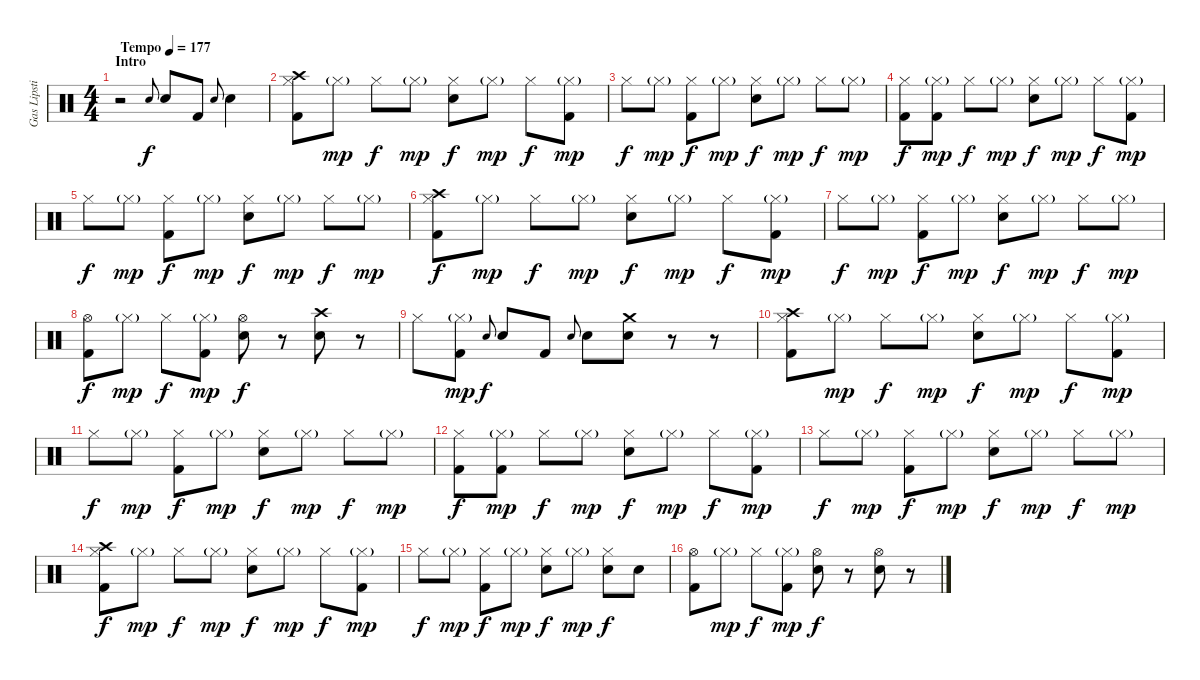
\track ("Gas Lipstick (Drums)" "Gas Lipsti") {instrument percussion}
\staff {score}
\articulation defaults
\ts (4 4)
\section ("" "Intro")
\tempo (177 "Tempo")
\clef neutral
\ks c
r.2{dy f} "Snare (hit) 2".8{gr onbeat} "Snare (hit) 2".8 "Kick (hit) 2".8 "Snare (hit) 2".8{gr onbeat} "Snare (hit) 2".4 |
("Crash high (hit)" "Hi-Hat (closed)" "Kick (hit) 2").8 "Hi-Hat (closed)"{g}.8{dy mp} "Hi-Hat (closed)".8{dy f} "Hi-Hat (closed)"{g}.8{dy mp} ("Hi-Hat (closed)" "Snare (hit) 2").8{dy f} "Hi-Hat (closed)"{g}.8{dy mp} "Hi-Hat (closed)".8{dy f} ("Hi-Hat (closed)"{g} "Kick (hit) 2").8{dy mp} |
"Hi-Hat (closed)".8{dy f} "Hi-Hat (closed)"{g}.8{dy mp} ("Hi-Hat (closed)" "Kick (hit) 2").8{dy f} "Hi-Hat (closed)"{g}.8{dy mp} ("Hi-Hat (closed)" "Snare (hit) 2").8{dy f} "Hi-Hat (closed)"{g}.8{dy mp} "Hi-Hat (closed)".8{dy f} "Hi-Hat (closed)"{g}.8{dy mp} |
("Hi-Hat (closed)" "Kick (hit) 2").8{dy f} ("Hi-Hat (closed)"{g} "Kick (hit) 2").8{dy mp} "Hi-Hat (closed)".8{dy f} "Hi-Hat (closed)"{g}.8{dy mp} ("Hi-Hat (closed)" "Snare (hit) 2").8{dy f} "Hi-Hat (closed)"{g}.8{dy mp} "Hi-Hat (closed)".8{dy f} ("Hi-Hat (closed)"{g} "Kick (hit) 2").8{dy mp} |
"Hi-Hat (closed)".8{dy f} "Hi-Hat (closed)"{g}.8{dy mp} ("Hi-Hat (closed)" "Kick (hit) 2").8{dy f} "Hi-Hat (closed)"{g}.8{dy mp} ("Hi-Hat (closed)" "Snare (hit) 2").8{dy f} "Hi-Hat (closed)"{g}.8{dy mp} "Hi-Hat (closed)".8{dy f} "Hi-Hat (closed)"{g}.8{dy mp} |
("Crash high (hit)" "Hi-Hat (closed)" "Kick (hit) 2").8{dy f} "Hi-Hat (closed)"{g}.8{dy mp} "Hi-Hat (closed)".8{dy f} "Hi-Hat (closed)"{g}.8{dy mp} ("Hi-Hat (closed)" "Snare (hit) 2").8{dy f} "Hi-Hat (closed)"{g}.8{dy mp} "Hi-Hat (closed)".8{dy f} ("Hi-Hat (closed)"{g} "Kick (hit) 2").8{dy mp} |
"Hi-Hat (closed)".8{dy f} "Hi-Hat (closed)"{g}.8{dy mp} ("Hi-Hat (closed)" "Kick (hit) 2").8{dy f} "Hi-Hat (closed)"{g}.8{dy mp} ("Hi-Hat (closed)" "Snare (hit) 2").8{dy f} "Hi-Hat (closed)"{g}.8{dy mp} "Hi-Hat (closed)".8{dy f} "Hi-Hat (closed)"{g}.8{dy mp} |
("Hi-Hat (open)" "Kick (hit) 2").8{dy f} "Hi-Hat (closed)"{g}.8{dy mp} "Hi-Hat (closed)".8{dy f} ("Hi-Hat (closed)"{g} "Kick (hit) 2").8{dy mp} ("Hi-Hat (open)" "Snare (hit) 2").8{dy f} r.8 ("Crash high (hit)" "Snare (hit) 2").8 r.8 |
"Hi-Hat (closed)".8 ("Hi-Hat (closed)"{g} "Kick (hit) 2").8{dy mp} "Snare (hit) 2".8{gr onbeat dy f} "Snare (hit) 2".8 "Kick (hit) 2".8 "Snare (hit) 2".8{gr onbeat} "Snare (hit) 2".8 ("Crash medium (hit)" "Snare (hit) 2").8 r.8 r.8 |
("Crash high (hit)" "Hi-Hat (closed)" "Kick (hit) 2").8 "Hi-Hat (closed)"{g}.8{dy mp} "Hi-Hat (closed)".8{dy f} "Hi-Hat (closed)"{g}.8{dy mp} ("Hi-Hat (closed)" "Snare (hit) 2").8{dy f} "Hi-Hat (closed)"{g}.8{dy mp} "Hi-Hat (closed)".8{dy f} ("Hi-Hat (closed)"{g} "Kick (hit) 2").8{dy mp} |
"Hi-Hat (closed)".8{dy f} "Hi-Hat (closed)"{g}.8{dy mp} ("Hi-Hat (closed)" "Kick (hit) 2").8{dy f} "Hi-Hat (closed)"{g}.8{dy mp} ("Hi-Hat (closed)" "Snare (hit) 2").8{dy f} "Hi-Hat (closed)"{g}.8{dy mp} "Hi-Hat (closed)".8{dy f} "Hi-Hat (closed)"{g}.8{dy mp} |
("Hi-Hat (closed)" "Kick (hit) 2").8{dy f} ("Hi-Hat (closed)"{g} "Kick (hit) 2").8{dy mp} "Hi-Hat (closed)".8{dy f} "Hi-Hat (closed)"{g}.8{dy mp} ("Hi-Hat (closed)" "Snare (hit) 2").8{dy f} "Hi-Hat (closed)"{g}.8{dy mp} "Hi-Hat (closed)".8{dy f} ("Hi-Hat (closed)"{g} "Kick (hit) 2").8{dy mp} |
"Hi-Hat (closed)".8{dy f} "Hi-Hat (closed)"{g}.8{dy mp} ("Hi-Hat (closed)" "Kick (hit) 2").8{dy f} "Hi-Hat (closed)"{g}.8{dy mp} ("Hi-Hat (closed)" "Snare (hit) 2").8{dy f} "Hi-Hat (closed)"{g}.8{dy mp} "Hi-Hat (closed)".8{dy f} "Hi-Hat (closed)"{g}.8{dy mp} |
("Crash high (hit)" "Hi-Hat (closed)" "Kick (hit) 2").8{dy f} "Hi-Hat (closed)"{g}.8{dy mp} "Hi-Hat (closed)".8{dy f} "Hi-Hat (closed)"{g}.8{dy mp} ("Hi-Hat (closed)" "Snare (hit) 2").8{dy f} "Hi-Hat (closed)"{g}.8{dy mp} "Hi-Hat (closed)".8{dy f} ("Hi-Hat (closed)"{g} "Kick (hit) 2").8{dy mp} |
"Hi-Hat (closed)".8{dy f} "Hi-Hat (closed)"{g}.8{dy mp} ("Hi-Hat (closed)" "Kick (hit) 2").8{dy f} "Hi-Hat (closed)"{g}.8{dy mp} ("Hi-Hat (closed)" "Snare (hit) 2").8{dy f} "Hi-Hat (closed)"{g}.8{dy mp} ("Hi-Hat (closed)" "Snare (hit) 2").8{dy f} "Snare (hit) 2".8 |
("Hi-Hat (open)" "Kick (hit) 2").8 "Hi-Hat (closed)"{g}.8{dy mp} "Hi-Hat (closed)".8{dy f} ("Hi-Hat (closed)"{g} "Kick (hit) 2").8{dy mp} ("Hi-Hat (open)" "Snare (hit) 2").8{dy f} r.8 ("Hi-Hat (open)" "Snare (hit) 2").8 r.8
